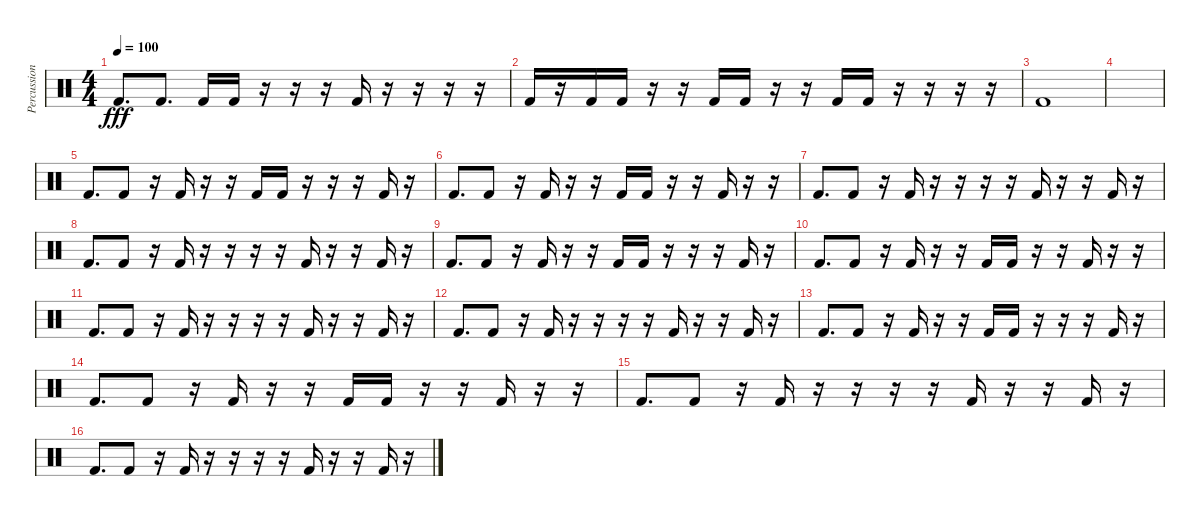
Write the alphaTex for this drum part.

\track ("Percussion" "Percussion") {instrument percussion}
\staff {score}
\articulation defaults
\ts (4 4)
\tempo 100
\clef neutral
\ks c "Kick (hit) 2".8{d dy fff} "Kick (hit) 2".8{d} "Kick (hit) 2".16 "Kick (hit) 2".16
r.16 r.16 r.16 "Kick (hit) 2".16 r.16 r.16 r.16 r.16 |
"Kick (hit) 2".16 r.16 "Kick (hit) 2".16 "Kick (hit) 2".16 r.16 r.16 "Kick (hit) 2".16 "Kick (hit) 2".16 r.16 r.16 "Kick (hit) 2".16 "Kick (hit) 2".16 r.16 r.16 r.16 r.16 |
"Kick (hit) 2".1 |
|
"Kick (hit) 2".8{d} "Kick (hit) 2".8 r.16 "Kick (hit) 2".16 r.16 r.16 "Kick (hit) 2".16 "Kick (hit) 2".16 r.16 r.16 r.16 "Kick (hit) 2".16 r.16 |
"Kick (hit) 2".8{d} "Kick (hit) 2".8 r.16 "Kick (hit) 2".16 r.16 r.16 "Kick (hit) 2".16 "Kick (hit) 2".16 r.16 r.16 "Kick (hit) 2".16 r.16 r.16 |
"Kick (hit) 2".8{d} "Kick (hit) 2".8 r.16 "Kick (hit) 2".16 r.16 r.16 r.16 r.16 "Kick (hit) 2".16 r.16 r.16 "Kick (hit) 2".16 r.16 |
"Kick (hit) 2".8{d} "Kick (hit) 2".8 r.16 "Kick (hit) 2".16 r.16 r.16 r.16 r.16 "Kick (hit) 2".16 r.16 r.16 "Kick (hit) 2".16 r.16 |
"Kick (hit) 2".8{d} "Kick (hit) 2".8 r.16 "Kick (hit) 2".16 r.16 r.16 "Kick (hit) 2".16 "Kick (hit) 2".16 r.16 r.16 r.16 "Kick (hit) 2".16 r.16 |
"Kick (hit) 2".8{d} "Kick (hit) 2".8 r.16 "Kick (hit) 2".16 r.16 r.16 "Kick (hit) 2".16 "Kick (hit) 2".16 r.16 r.16 "Kick (hit) 2".16 r.16 r.16 |
"Kick (hit) 2".8{d} "Kick (hit) 2".8 r.16 "Kick (hit) 2".16 r.16 r.16 r.16 r.16 "Kick (hit) 2".16 r.16 r.16 "Kick (hit) 2".16 r.16 |
"Kick (hit) 2".8{d} "Kick (hit) 2".8 r.16 "Kick (hit) 2".16 r.16 r.16 r.16 r.16 "Kick (hit) 2".16 r.16 r.16 "Kick (hit) 2".16 r.16 |
"Kick (hit) 2".8{d} "Kick (hit) 2".8 r.16 "Kick (hit) 2".16 r.16 r.16 "Kick (hit) 2".16 "Kick (hit) 2".16 r.16 r.16 r.16 "Kick (hit) 2".16 r.16 |
"Kick (hit) 2".8{d} "Kick (hit) 2".8 r.16 "Kick (hit) 2".16 r.16 r.16 "Kick (hit) 2".16 "Kick (hit) 2".16 r.16 r.16 "Kick (hit) 2".16 r.16 r.16 |
"Kick (hit) 2".8{d} "Kick (hit) 2".8 r.16 "Kick (hit) 2".16 r.16 r.16 r.16 r.16 "Kick (hit) 2".16 r.16 r.16 "Kick (hit) 2".16 r.16 |
"Kick (hit) 2".8{d} "Kick (hit) 2".8 r.16 "Kick (hit) 2".16 r.16 r.16 r.16 r.16 "Kick (hit) 2".16 r.16 r.16 "Kick (hit) 2".16 r.16
